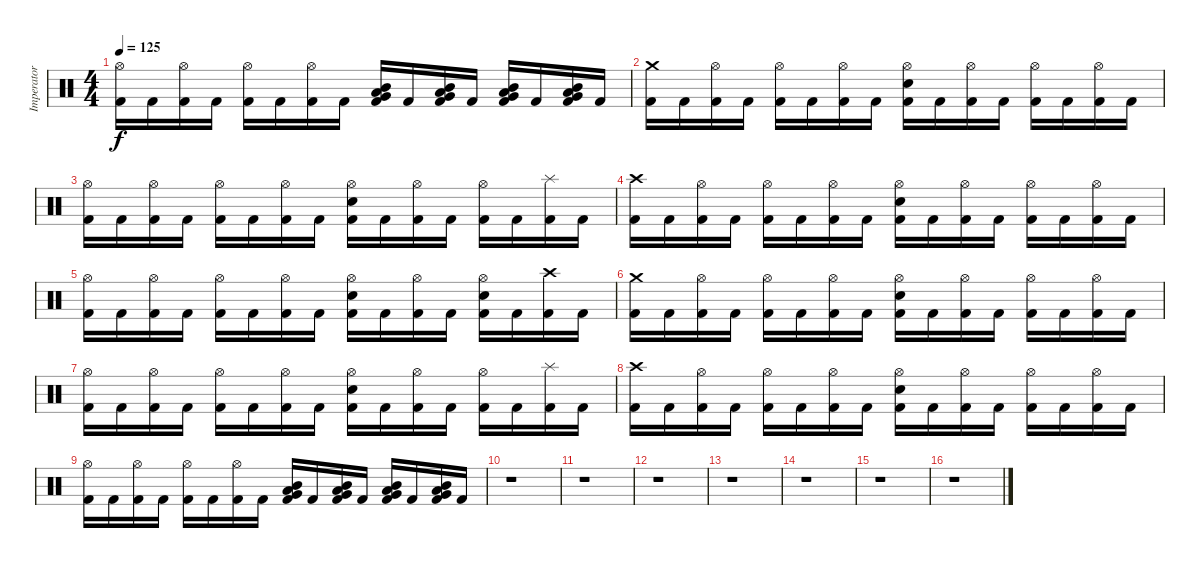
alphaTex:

\track ("Imperator" "Imperator") {instrument percussion}
\staff {score}
\articulation defaults
\ts (4 4)
\tempo 125
\clef neutral
\ks c
("Hi-Hat (open)" "Kick (hit) 2").16{dy f} "Kick (hit) 2".16 ("Hi-Hat (open)" "Kick (hit) 2").16 "Kick (hit) 2".16 ("Hi-Hat (open)" "Kick (hit) 2").16 "Kick (hit) 2".16 ("Hi-Hat (open)" "Kick (hit) 2").16 "Kick (hit) 2".16 ("Low Tom (hit)" "Mid Tom (hit)" "Very Low Tom (hit)" "Kick (hit) 2").16 "Kick (hit) 2".16 ("Low Tom (hit)" "Mid Tom (hit)" "Very Low Tom (hit)" "Kick (hit) 2").16 "Kick (hit) 2".16 ("Low Tom (hit)" "Mid Tom (hit)" "Very Low Tom (hit)" "Kick (hit) 2").16 "Kick (hit) 2".16 ("Low Tom (hit)" "Mid Tom (hit)" "Very Low Tom (hit)" "Kick (hit) 2").16 "Kick (hit) 2".16 |
("Crash medium (hit)" "Kick (hit) 2").16 "Kick (hit) 2".16 ("Hi-Hat (open)" "Kick (hit) 2").16 "Kick (hit) 2".16 ("Hi-Hat (open)" "Kick (hit) 2").16 "Kick (hit) 2".16 ("Hi-Hat (open)" "Kick (hit) 2").16 "Kick (hit) 2".16 ("Hi-Hat (open)" "Snare (hit) 2" "Kick (hit) 2").16 "Kick (hit) 2".16 ("Hi-Hat (open)" "Kick (hit) 2").16 "Kick (hit) 2".16 ("Hi-Hat (open)" "Kick (hit) 2").16 "Kick (hit) 2".16 ("Hi-Hat (open)" "Kick (hit) 2").16 "Kick (hit) 2".16 |
("Hi-Hat (open)" "Kick (hit) 2").16 "Kick (hit) 2".16 ("Hi-Hat (open)" "Kick (hit) 2").16 "Kick (hit) 2".16 ("Hi-Hat (open)" "Kick (hit) 2").16 "Kick (hit) 2".16 ("Hi-Hat (open)" "Kick (hit) 2").16 "Kick (hit) 2".16 ("Hi-Hat (open)" "Snare (hit) 2" "Kick (hit) 2").16 "Kick (hit) 2".16 ("Hi-Hat (open)" "Kick (hit) 2").16 "Kick (hit) 2".16 ("Hi-Hat (open)" "Kick (hit) 2").16 "Kick (hit) 2".16 ("Splash (hit)" "Kick (hit) 2").16 "Kick (hit) 2".16 |
("Crash high (hit)" "Kick (hit) 2").16 "Kick (hit) 2".16 ("Hi-Hat (open)" "Kick (hit) 2").16 "Kick (hit) 2".16 ("Hi-Hat (open)" "Kick (hit) 2").16 "Kick (hit) 2".16 ("Hi-Hat (open)" "Kick (hit) 2").16 "Kick (hit) 2".16 ("Hi-Hat (open)" "Snare (hit) 2" "Kick (hit) 2").16 "Kick (hit) 2".16 ("Hi-Hat (open)" "Kick (hit) 2").16 "Kick (hit) 2".16 ("Hi-Hat (open)" "Kick (hit) 2").16 "Kick (hit) 2".16 ("Hi-Hat (open)" "Kick (hit) 2").16 "Kick (hit) 2".16 |
("Hi-Hat (open)" "Kick (hit) 2").16 "Kick (hit) 2".16 ("Hi-Hat (open)" "Kick (hit) 2").16 "Kick (hit) 2".16 ("Hi-Hat (open)" "Kick (hit) 2").16 "Kick (hit) 2".16 ("Hi-Hat (open)" "Kick (hit) 2").16 "Kick (hit) 2".16 ("Hi-Hat (open)" "Snare (hit) 2" "Kick (hit) 2").16 "Kick (hit) 2".16 ("Hi-Hat (open)" "Kick (hit) 2").16 "Kick (hit) 2".16 ("Hi-Hat (open)" "Snare (hit) 2" "Kick (hit) 2").16 "Kick (hit) 2".16 ("Crash high (hit)" "Kick (hit) 2").16 "Kick (hit) 2".16 |
("Crash medium (hit)" "Kick (hit) 2").16 "Kick (hit) 2".16 ("Hi-Hat (open)" "Kick (hit) 2").16 "Kick (hit) 2".16 ("Hi-Hat (open)" "Kick (hit) 2").16 "Kick (hit) 2".16 ("Hi-Hat (open)" "Kick (hit) 2").16 "Kick (hit) 2".16 ("Hi-Hat (open)" "Snare (hit) 2" "Kick (hit) 2").16 "Kick (hit) 2".16 ("Hi-Hat (open)" "Kick (hit) 2").16 "Kick (hit) 2".16 ("Hi-Hat (open)" "Kick (hit) 2").16 "Kick (hit) 2".16 ("Hi-Hat (open)" "Kick (hit) 2").16 "Kick (hit) 2".16 |
("Hi-Hat (open)" "Kick (hit) 2").16 "Kick (hit) 2".16 ("Hi-Hat (open)" "Kick (hit) 2").16 "Kick (hit) 2".16 ("Hi-Hat (open)" "Kick (hit) 2").16 "Kick (hit) 2".16 ("Hi-Hat (open)" "Kick (hit) 2").16 "Kick (hit) 2".16 ("Hi-Hat (open)" "Snare (hit) 2" "Kick (hit) 2").16 "Kick (hit) 2".16 ("Hi-Hat (open)" "Kick (hit) 2").16 "Kick (hit) 2".16 ("Hi-Hat (open)" "Kick (hit) 2").16 "Kick (hit) 2".16 ("Splash (hit)" "Kick (hit) 2").16 "Kick (hit) 2".16 |
("Crash high (hit)" "Kick (hit) 2").16 "Kick (hit) 2".16 ("Hi-Hat (open)" "Kick (hit) 2").16 "Kick (hit) 2".16 ("Hi-Hat (open)" "Kick (hit) 2").16 "Kick (hit) 2".16 ("Hi-Hat (open)" "Kick (hit) 2").16 "Kick (hit) 2".16 ("Hi-Hat (open)" "Snare (hit) 2" "Kick (hit) 2").16 "Kick (hit) 2".16 ("Hi-Hat (open)" "Kick (hit) 2").16 "Kick (hit) 2".16 ("Hi-Hat (open)" "Kick (hit) 2").16 "Kick (hit) 2".16 ("Hi-Hat (open)" "Kick (hit) 2").16 "Kick (hit) 2".16 |
("Hi-Hat (open)" "Kick (hit) 2").16 "Kick (hit) 2".16 ("Hi-Hat (open)" "Kick (hit) 2").16 "Kick (hit) 2".16 ("Hi-Hat (open)" "Kick (hit) 2").16 "Kick (hit) 2".16 ("Hi-Hat (open)" "Kick (hit) 2").16 "Kick (hit) 2".16 ("Low Tom (hit)" "Mid Tom (hit)" "Very Low Tom (hit)" "Kick (hit) 2").16 "Kick (hit) 2".16 ("Low Tom (hit)" "Mid Tom (hit)" "Very Low Tom (hit)" "Kick (hit) 2").16 "Kick (hit) 2".16 ("Low Tom (hit)" "Mid Tom (hit)" "Very Low Tom (hit)" "Kick (hit) 2").16 "Kick (hit) 2".16 ("Low Tom (hit)" "Mid Tom (hit)" "Very Low Tom (hit)" "Kick (hit) 2").16 "Kick (hit) 2".16 |
r.1 |
r.1 |
r.1 |
r.1 |
r.1 |
r.1 |
r.1
